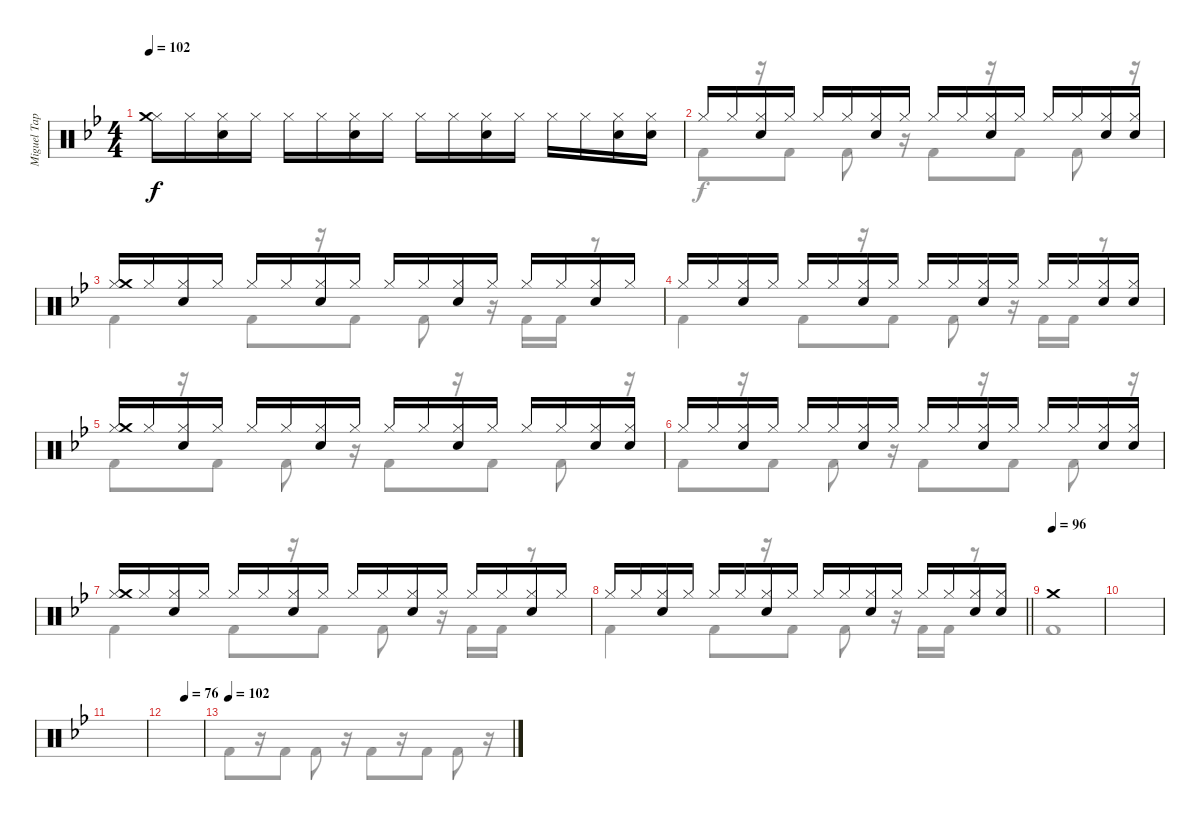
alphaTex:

\track ("Miguel Tapia (Batería)" "Miguel Tap") {instrument percussion}
\staff {score}
\articulation defaults
\voice
\ts (4 4)
\tempo 102
\clef neutral
\ks bb
("Hi-Hat (closed)" "Crash medium (hit)").16{dy f} "Hi-Hat (closed)".16 ("Hi-Hat (closed)" "Snare (hit) 2").16 "Hi-Hat (closed)".16 "Hi-Hat (closed)".16 "Hi-Hat (closed)".16 ("Hi-Hat (closed)" "Snare (hit) 2").16 "Hi-Hat (closed)".16 "Hi-Hat (closed)".16 "Hi-Hat (closed)".16 ("Hi-Hat (closed)" "Snare (hit) 2").16 "Hi-Hat (closed)".16 "Hi-Hat (closed)".16 "Hi-Hat (closed)".16 ("Hi-Hat (closed)" "Snare (hit) 2").16 ("Hi-Hat (closed)" "Snare (hit) 2").16 |
"Hi-Hat (closed)".16 "Hi-Hat (closed)".16 ("Hi-Hat (closed)" "Snare (hit) 2").16 "Hi-Hat (closed)".16 "Hi-Hat (closed)".16 "Hi-Hat (closed)".16 ("Hi-Hat (closed)" "Snare (hit) 2").16 "Hi-Hat (closed)".16 "Hi-Hat (closed)".16 "Hi-Hat (closed)".16 ("Hi-Hat (closed)" "Snare (hit) 2").16 "Hi-Hat (closed)".16 "Hi-Hat (closed)".16 "Hi-Hat (closed)".16 ("Hi-Hat (closed)" "Snare (hit) 2").16 ("Hi-Hat (closed)" "Snare (hit) 2").16 |
("Hi-Hat (closed)" "Crash medium (hit)").16 "Hi-Hat (closed)".16 ("Hi-Hat (closed)" "Snare (hit) 2").16 "Hi-Hat (closed)".16 "Hi-Hat (closed)".16 "Hi-Hat (closed)".16 ("Hi-Hat (closed)" "Snare (hit) 2").16 "Hi-Hat (closed)".16 "Hi-Hat (closed)".16 "Hi-Hat (closed)".16 ("Hi-Hat (closed)" "Snare (hit) 2").16 "Hi-Hat (closed)".16 "Hi-Hat (closed)".16 "Hi-Hat (closed)".16 ("Hi-Hat (closed)" "Snare (hit) 2").16 "Hi-Hat (closed)".16 |
"Hi-Hat (closed)".16 "Hi-Hat (closed)".16 ("Hi-Hat (closed)" "Snare (hit) 2").16 "Hi-Hat (closed)".16 "Hi-Hat (closed)".16 "Hi-Hat (closed)".16 ("Hi-Hat (closed)" "Snare (hit) 2").16 "Hi-Hat (closed)".16 "Hi-Hat (closed)".16 "Hi-Hat (closed)".16 ("Hi-Hat (closed)" "Snare (hit) 2").16 "Hi-Hat (closed)".16 "Hi-Hat (closed)".16 "Hi-Hat (closed)".16 ("Hi-Hat (closed)" "Snare (hit) 2").16 ("Hi-Hat (closed)" "Snare (hit) 2").16 |
("Hi-Hat (closed)" "Crash medium (hit)").16 "Hi-Hat (closed)".16 ("Hi-Hat (closed)" "Snare (hit) 2").16 "Hi-Hat (closed)".16 "Hi-Hat (closed)".16 "Hi-Hat (closed)".16 ("Hi-Hat (closed)" "Snare (hit) 2").16 "Hi-Hat (closed)".16 "Hi-Hat (closed)".16 "Hi-Hat (closed)".16 ("Hi-Hat (closed)" "Snare (hit) 2").16 "Hi-Hat (closed)".16 "Hi-Hat (closed)".16 "Hi-Hat (closed)".16 ("Hi-Hat (closed)" "Snare (hit) 2").16 ("Hi-Hat (closed)" "Snare (hit) 2").16 |
"Hi-Hat (closed)".16 "Hi-Hat (closed)".16 ("Hi-Hat (closed)" "Snare (hit) 2").16 "Hi-Hat (closed)".16 "Hi-Hat (closed)".16 "Hi-Hat (closed)".16 ("Hi-Hat (closed)" "Snare (hit) 2").16 "Hi-Hat (closed)".16 "Hi-Hat (closed)".16 "Hi-Hat (closed)".16 ("Hi-Hat (closed)" "Snare (hit) 2").16 "Hi-Hat (closed)".16 "Hi-Hat (closed)".16 "Hi-Hat (closed)".16 ("Hi-Hat (closed)" "Snare (hit) 2").16 ("Hi-Hat (closed)" "Snare (hit) 2").16 |
("Hi-Hat (closed)" "Crash medium (hit)").16 "Hi-Hat (closed)".16 ("Hi-Hat (closed)" "Snare (hit) 2").16 "Hi-Hat (closed)".16 "Hi-Hat (closed)".16 "Hi-Hat (closed)".16 ("Hi-Hat (closed)" "Snare (hit) 2").16 "Hi-Hat (closed)".16 "Hi-Hat (closed)".16 "Hi-Hat (closed)".16 ("Hi-Hat (closed)" "Snare (hit) 2").16 "Hi-Hat (closed)".16 "Hi-Hat (closed)".16 "Hi-Hat (closed)".16 ("Hi-Hat (closed)" "Snare (hit) 2").16 "Hi-Hat (closed)".16 |
\barLineRight lightlight "Hi-Hat (closed)".16 "Hi-Hat (closed)".16
("Hi-Hat (closed)" "Snare (hit) 2").16 "Hi-Hat (closed)".16 "Hi-Hat (closed)".16 "Hi-Hat (closed)".16 ("Hi-Hat (closed)" "Snare (hit) 2").16 "Hi-Hat (closed)".16 "Hi-Hat (closed)".16 "Hi-Hat (closed)".16 ("Hi-Hat (closed)" "Snare (hit) 2").16 "Hi-Hat (closed)".16 "Hi-Hat (closed)".16 "Hi-Hat (closed)".16 ("Hi-Hat (closed)" "Snare (hit) 2").16 ("Hi-Hat (closed)" "Snare (hit) 2").16 |
\tempo (96)
"Crash medium (hit)".1 |
|
|
\tempo (76 0.5)
|
\tempo 102
\voice
\clef neutral
\ottava regular
\simile none
\ks bb "Kick (hit) 2".8{dy f}
r.16 "Kick (hit) 2".8 "Kick (hit) 2".8 r.16 "Kick (hit) 2".8 r.16 "Kick (hit) 2".8 "Kick (hit) 2".8 r.16 |
"Kick (hit) 2".8 r.16 "Kick (hit) 2".8 "Kick (hit) 2".8 r.16 "Kick (hit) 2".8 r.16 "Kick (hit) 2".8 "Kick (hit) 2".8 r.16 |
"Kick (hit) 2".4 "Kick (hit) 2".8 r.16 "Kick (hit) 2".8 "Kick (hit) 2".8 r.16 "Kick (hit) 2".16 "Kick (hit) 2".16 r.8 |
"Kick (hit) 2".4 "Kick (hit) 2".8 r.16 "Kick (hit) 2".8 "Kick (hit) 2".8 r.16 "Kick (hit) 2".16 "Kick (hit) 2".16 r.8 |
"Kick (hit) 2".8 r.16 "Kick (hit) 2".8 "Kick (hit) 2".8 r.16 "Kick (hit) 2".8 r.16 "Kick (hit) 2".8 "Kick (hit) 2".8 r.16 |
"Kick (hit) 2".8 r.16 "Kick (hit) 2".8 "Kick (hit) 2".8 r.16 "Kick (hit) 2".8 r.16 "Kick (hit) 2".8 "Kick (hit) 2".8 r.16 |
"Kick (hit) 2".4 "Kick (hit) 2".8 r.16 "Kick (hit) 2".8 "Kick (hit) 2".8 r.16 "Kick (hit) 2".16 "Kick (hit) 2".16 r.8 |
\barLineRight lightlight "Kick (hit) 2".4 "Kick (hit) 2".8
r.16 "Kick (hit) 2".8 "Kick (hit) 2".8 r.16 "Kick (hit) 2".16 "Kick (hit) 2".16 r.8 |
"Kick (hit) 2".1 |
|
|
|
